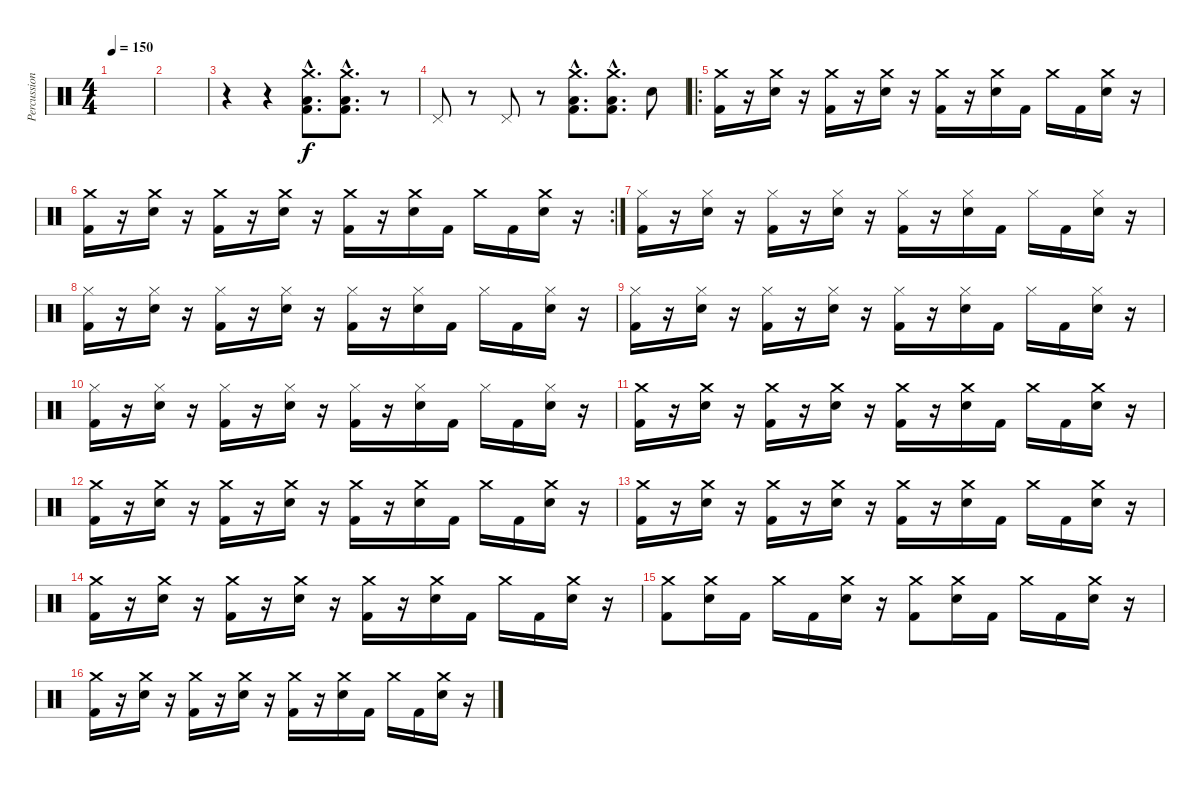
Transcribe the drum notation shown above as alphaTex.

\track ("Percussions" "Percussion") {instrument percussion}
\staff {score}
\articulation defaults
\ts (4 4)
\tempo 150
\clef neutral
\ks c
|
|
r.4 r.4 ("Crash medium (hit)"{hac} "Low Floor Tom (hit)"{hac} "Kick (hit) 2"{hac}).8{d} ("Crash medium (hit)"{hac} "Low Floor Tom (hit)"{hac} "Kick (hit) 2"{hac}).8{d} r.8 |
"Pedal Hi-Hat (hit)".8 r.8 "Pedal Hi-Hat (hit)".8 r.8 ("Crash medium (hit)"{hac} "Low Floor Tom (hit)"{hac} "Kick (hit) 2"{hac}).8{d} ("Crash medium (hit)"{hac} "Low Floor Tom (hit)"{hac} "Kick (hit) 2"{hac}).8{d} "Snare (hit) 2".8 |
\ro
("Crash medium (hit)" "Kick (hit) 2").16 r.16 ("Crash medium (hit)" "Snare (hit) 2").16 r.16 ("Crash medium (hit)" "Kick (hit) 2").16 r.16 ("Crash medium (hit)" "Snare (hit) 2").16 r.16 ("Crash medium (hit)" "Kick (hit) 2").16 r.16 ("Crash medium (hit)" "Snare (hit) 2").16 "Kick (hit) 2".16 "Crash medium (hit)".16 "Kick (hit) 2".16 ("Crash medium (hit)" "Snare (hit) 2").16 r.16 |
\rc 2
("Crash medium (hit)" "Kick (hit) 2").16 r.16 ("Crash medium (hit)" "Snare (hit) 2").16 r.16 ("Crash medium (hit)" "Kick (hit) 2").16 r.16 ("Crash medium (hit)" "Snare (hit) 2").16 r.16 ("Crash medium (hit)" "Kick (hit) 2").16 r.16 ("Crash medium (hit)" "Snare (hit) 2").16 "Kick (hit) 2".16 "Crash medium (hit)".16 "Kick (hit) 2".16 ("Crash medium (hit)" "Snare (hit) 2").16 r.16 |
("Hi-Hat (closed)" "Kick (hit) 2").16 r.16 ("Hi-Hat (closed)" "Snare (hit) 2").16 r.16 ("Hi-Hat (closed)" "Kick (hit) 2").16 r.16 ("Hi-Hat (closed)" "Snare (hit) 2").16 r.16 ("Hi-Hat (closed)" "Kick (hit) 2").16 r.16 ("Hi-Hat (closed)" "Snare (hit) 2").16 "Kick (hit) 2".16 "Hi-Hat (closed)".16 "Kick (hit) 2".16 ("Hi-Hat (closed)" "Snare (hit) 2").16 r.16 |
("Hi-Hat (closed)" "Kick (hit) 2").16 r.16 ("Hi-Hat (closed)" "Snare (hit) 2").16 r.16 ("Hi-Hat (closed)" "Kick (hit) 2").16 r.16 ("Hi-Hat (closed)" "Snare (hit) 2").16 r.16 ("Hi-Hat (closed)" "Kick (hit) 2").16 r.16 ("Hi-Hat (closed)" "Snare (hit) 2").16 "Kick (hit) 2".16 "Hi-Hat (closed)".16 "Kick (hit) 2".16 ("Hi-Hat (closed)" "Snare (hit) 2").16 r.16 |
("Hi-Hat (closed)" "Kick (hit) 2").16 r.16 ("Hi-Hat (closed)" "Snare (hit) 2").16 r.16 ("Hi-Hat (closed)" "Kick (hit) 2").16 r.16 ("Hi-Hat (closed)" "Snare (hit) 2").16 r.16 ("Hi-Hat (closed)" "Kick (hit) 2").16 r.16 ("Hi-Hat (closed)" "Snare (hit) 2").16 "Kick (hit) 2".16 "Hi-Hat (closed)".16 "Kick (hit) 2".16 ("Hi-Hat (closed)" "Snare (hit) 2").16 r.16 |
("Hi-Hat (closed)" "Kick (hit) 2").16 r.16 ("Hi-Hat (closed)" "Snare (hit) 2").16 r.16 ("Hi-Hat (closed)" "Kick (hit) 2").16 r.16 ("Hi-Hat (closed)" "Snare (hit) 2").16 r.16 ("Hi-Hat (closed)" "Kick (hit) 2").16 r.16 ("Hi-Hat (closed)" "Snare (hit) 2").16 "Kick (hit) 2".16 "Hi-Hat (closed)".16 "Kick (hit) 2".16 ("Hi-Hat (closed)" "Snare (hit) 2").16 r.16 |
("Crash medium (hit)" "Kick (hit) 2").16 r.16 ("Crash medium (hit)" "Snare (hit) 2").16 r.16 ("Crash medium (hit)" "Kick (hit) 2").16 r.16 ("Crash medium (hit)" "Snare (hit) 2").16 r.16 ("Crash medium (hit)" "Kick (hit) 2").16 r.16 ("Crash medium (hit)" "Snare (hit) 2").16 "Kick (hit) 2".16 "Crash medium (hit)".16 "Kick (hit) 2".16 ("Crash medium (hit)" "Snare (hit) 2").16 r.16 |
("Crash medium (hit)" "Kick (hit) 2").16 r.16 ("Crash medium (hit)" "Snare (hit) 2").16 r.16 ("Crash medium (hit)" "Kick (hit) 2").16 r.16 ("Crash medium (hit)" "Snare (hit) 2").16 r.16 ("Crash medium (hit)" "Kick (hit) 2").16 r.16 ("Crash medium (hit)" "Snare (hit) 2").16 "Kick (hit) 2".16 "Crash medium (hit)".16 "Kick (hit) 2".16 ("Crash medium (hit)" "Snare (hit) 2").16 r.16 |
("Crash medium (hit)" "Kick (hit) 2").16 r.16 ("Crash medium (hit)" "Snare (hit) 2").16 r.16 ("Crash medium (hit)" "Kick (hit) 2").16 r.16 ("Crash medium (hit)" "Snare (hit) 2").16 r.16 ("Crash medium (hit)" "Kick (hit) 2").16 r.16 ("Crash medium (hit)" "Snare (hit) 2").16 "Kick (hit) 2".16 "Crash medium (hit)".16 "Kick (hit) 2".16 ("Crash medium (hit)" "Snare (hit) 2").16 r.16 |
("Crash medium (hit)" "Kick (hit) 2").16 r.16 ("Crash medium (hit)" "Snare (hit) 2").16 r.16 ("Crash medium (hit)" "Kick (hit) 2").16 r.16 ("Crash medium (hit)" "Snare (hit) 2").16 r.16 ("Crash medium (hit)" "Kick (hit) 2").16 r.16 ("Crash medium (hit)" "Snare (hit) 2").16 "Kick (hit) 2".16 "Crash medium (hit)".16 "Kick (hit) 2".16 ("Crash medium (hit)" "Snare (hit) 2").16 r.16 |
("Crash medium (hit)" "Kick (hit) 2").8 ("Crash medium (hit)" "Snare (hit) 2").16 "Kick (hit) 2".16 "Crash medium (hit)".16 "Kick (hit) 2".16 ("Crash medium (hit)" "Snare (hit) 2").16 r.16 ("Crash medium (hit)" "Kick (hit) 2").8 ("Crash medium (hit)" "Snare (hit) 2").16 "Kick (hit) 2".16 "Crash medium (hit)".16 "Kick (hit) 2".16 ("Crash medium (hit)" "Snare (hit) 2").16 r.16 |
("Crash medium (hit)" "Kick (hit) 2").16 r.16 ("Crash medium (hit)" "Snare (hit) 2").16 r.16 ("Crash medium (hit)" "Kick (hit) 2").16 r.16 ("Crash medium (hit)" "Snare (hit) 2").16 r.16 ("Crash medium (hit)" "Kick (hit) 2").16 r.16 ("Crash medium (hit)" "Snare (hit) 2").16 "Kick (hit) 2".16 "Crash medium (hit)".16 "Kick (hit) 2".16 ("Crash medium (hit)" "Snare (hit) 2").16 r.16
